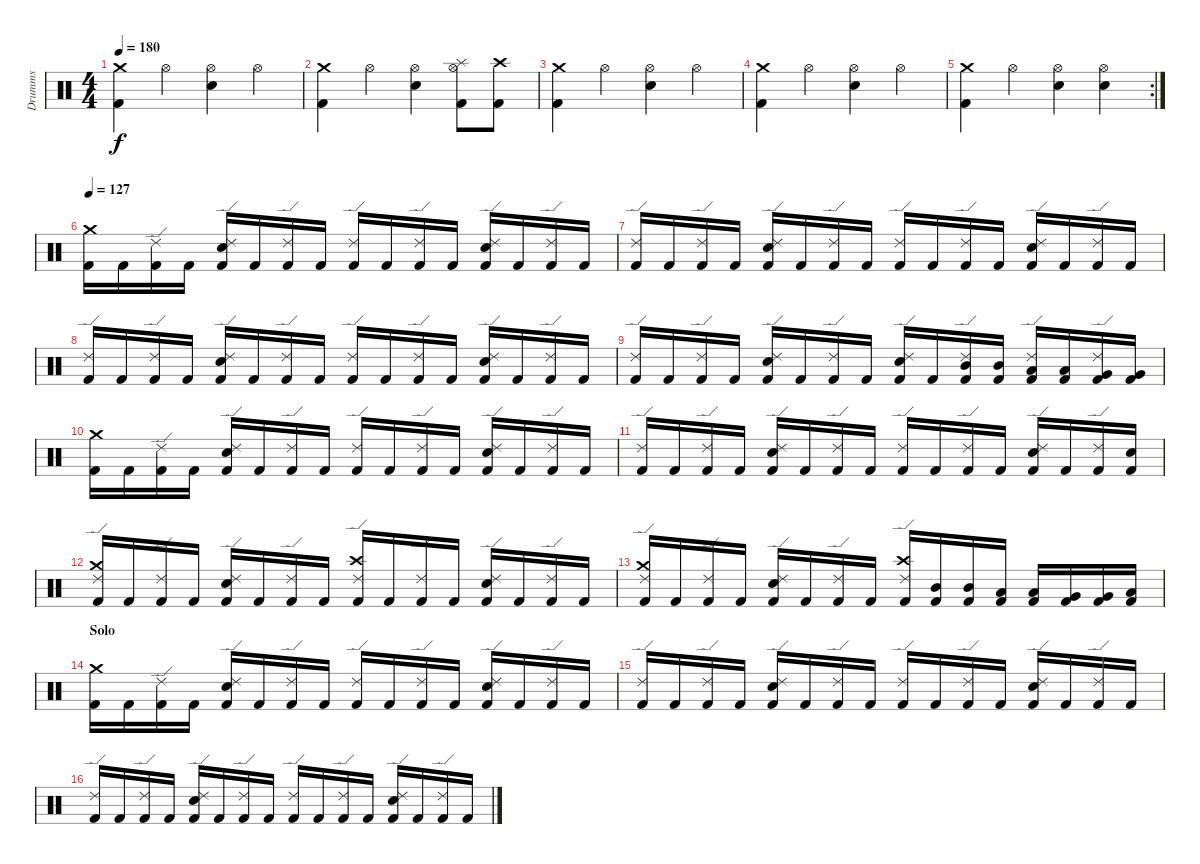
\track ("Drumms" "Drumms") {instrument percussion}
\staff {score}
\articulation defaults
\ts (4 4)
\tempo 180
\clef neutral
\ks c
("Kick (hit) 2" "Crash medium (hit)").4{dy f} "Hi-Hat (open)".4 ("Snare (hit) 2" "Hi-Hat (open)").4 "Hi-Hat (open)".4 |
("Kick (hit) 2" "Crash medium (hit)").4 "Hi-Hat (open)".4 ("Snare (hit) 2" "Hi-Hat (open)").4 ("Kick (hit) 2" "Splash (hit)" "Hi-Hat (open)").8 ("Kick (hit) 2" "Crash high (hit)").8 |
("Kick (hit) 2" "Crash medium (hit)").4 "Hi-Hat (open)".4 ("Snare (hit) 2" "Hi-Hat (open)").4 "Hi-Hat (open)".4 |
("Kick (hit) 2" "Crash medium (hit)").4 "Hi-Hat (open)".4 ("Snare (hit) 2" "Hi-Hat (open)").4 "Hi-Hat (open)".4 |
\rc 2
("Kick (hit) 2" "Crash medium (hit)").4 "Hi-Hat (open)".4 ("Snare (hit) 2" "Hi-Hat (open)").4 ("Snare (hit) 2" "Hi-Hat (open)").4 |
\tempo 127
("Kick (hit) 2" "Crash medium (hit)").16 "Kick (hit) 2".16 ("Kick (hit) 2" "Ride (edge) 2").16 "Kick (hit) 2".16 ("Kick (hit) 2" "Snare (hit) 2" "Ride (edge) 2").16 "Kick (hit) 2".16 ("Kick (hit) 2" "Ride (edge) 2").16 "Kick (hit) 2".16 ("Kick (hit) 2" "Ride (edge) 2").16 "Kick (hit) 2".16 ("Kick (hit) 2" "Ride (edge) 2").16 "Kick (hit) 2".16 ("Kick (hit) 2" "Snare (hit) 2" "Ride (edge) 2").16 "Kick (hit) 2".16 ("Kick (hit) 2" "Ride (edge) 2").16 "Kick (hit) 2".16 |
("Kick (hit) 2" "Ride (edge) 2").16 "Kick (hit) 2".16 ("Kick (hit) 2" "Ride (edge) 2").16 "Kick (hit) 2".16 ("Kick (hit) 2" "Snare (hit) 2" "Ride (edge) 2").16 "Kick (hit) 2".16 ("Kick (hit) 2" "Ride (edge) 2").16 "Kick (hit) 2".16 ("Kick (hit) 2" "Ride (edge) 2").16 "Kick (hit) 2".16 ("Kick (hit) 2" "Ride (edge) 2").16 "Kick (hit) 2".16 ("Kick (hit) 2" "Snare (hit) 2" "Ride (edge) 2").16 "Kick (hit) 2".16 ("Kick (hit) 2" "Ride (edge) 2").16 "Kick (hit) 2".16 |
("Kick (hit) 2" "Ride (edge) 2").16 "Kick (hit) 2".16 ("Kick (hit) 2" "Ride (edge) 2").16 "Kick (hit) 2".16 ("Kick (hit) 2" "Snare (hit) 2" "Ride (edge) 2").16 "Kick (hit) 2".16 ("Kick (hit) 2" "Ride (edge) 2").16 "Kick (hit) 2".16 ("Kick (hit) 2" "Ride (edge) 2").16 "Kick (hit) 2".16 ("Kick (hit) 2" "Ride (edge) 2").16 "Kick (hit) 2".16 ("Kick (hit) 2" "Snare (hit) 2" "Ride (edge) 2").16 "Kick (hit) 2".16 ("Kick (hit) 2" "Ride (edge) 2").16 "Kick (hit) 2".16 |
("Kick (hit) 2" "Ride (edge) 2").16 "Kick (hit) 2".16 ("Kick (hit) 2" "Ride (edge) 2").16 "Kick (hit) 2".16 ("Kick (hit) 2" "Snare (hit) 2" "Ride (edge) 2").16 "Kick (hit) 2".16 ("Kick (hit) 2" "Ride (edge) 2").16 "Kick (hit) 2".16 ("Kick (hit) 2" "Snare (hit) 2" "Ride (edge) 2").16 "Kick (hit) 2".16 ("Kick (hit) 2" "Mid Tom (hit)" "Ride (edge) 2").16 ("Kick (hit) 2" "Mid Tom (hit)").16 ("Kick (hit) 2" "Low Tom (hit)" "Ride (edge) 2").16 ("Kick (hit) 2" "Low Tom (hit)").16 ("Kick (hit) 2" "Very Low Tom (hit)" "Ride (edge) 2").16 ("Kick (hit) 2" "Very Low Tom (hit)").16 |
("Kick (hit) 2" "Crash medium (hit)").16 "Kick (hit) 2".16 ("Kick (hit) 2" "Ride (edge) 2").16 "Kick (hit) 2".16 ("Kick (hit) 2" "Snare (hit) 2" "Ride (edge) 2").16 "Kick (hit) 2".16 ("Kick (hit) 2" "Ride (edge) 2").16 "Kick (hit) 2".16 ("Kick (hit) 2" "Ride (edge) 2").16 "Kick (hit) 2".16 ("Kick (hit) 2" "Ride (edge) 2").16 "Kick (hit) 2".16 ("Kick (hit) 2" "Snare (hit) 2" "Ride (edge) 2").16 "Kick (hit) 2".16 ("Kick (hit) 2" "Ride (edge) 2").16 "Kick (hit) 2".16 |
("Kick (hit) 2" "Ride (edge) 2").16 "Kick (hit) 2".16 ("Kick (hit) 2" "Ride (edge) 2").16 "Kick (hit) 2".16 ("Kick (hit) 2" "Snare (hit) 2" "Ride (edge) 2").16 "Kick (hit) 2".16 ("Kick (hit) 2" "Ride (edge) 2").16 "Kick (hit) 2".16 ("Kick (hit) 2" "Ride (edge) 2").16 "Kick (hit) 2".16 ("Kick (hit) 2" "Ride (edge) 2").16 "Kick (hit) 2".16 ("Kick (hit) 2" "Snare (hit) 2" "Ride (edge) 2").16 "Kick (hit) 2".16 ("Kick (hit) 2" "Ride (edge) 2").16 ("Kick (hit) 2" "Snare (hit) 2").16 |
("Kick (hit) 2" "Crash medium (hit)" "Ride (edge) 2").16 "Kick (hit) 2".16 ("Kick (hit) 2" "Ride (edge) 2").16 "Kick (hit) 2".16 ("Kick (hit) 2" "Snare (hit) 2" "Ride (edge) 2").16 "Kick (hit) 2".16 ("Kick (hit) 2" "Ride (edge) 2").16 "Kick (hit) 2".16 ("Kick (hit) 2" "Crash high (hit)" "Ride (edge) 2").16 "Kick (hit) 2".16 ("Kick (hit) 2" "Ride (edge) 2").16 "Kick (hit) 2".16 ("Kick (hit) 2" "Snare (hit) 2" "Ride (edge) 2").16 "Kick (hit) 2".16 ("Kick (hit) 2" "Ride (edge) 2").16 "Kick (hit) 2".16 |
("Kick (hit) 2" "Crash medium (hit)" "Ride (edge) 2").16 "Kick (hit) 2".16 ("Kick (hit) 2" "Ride (edge) 2").16 "Kick (hit) 2".16 ("Kick (hit) 2" "Snare (hit) 2" "Ride (edge) 2").16 "Kick (hit) 2".16 ("Kick (hit) 2" "Ride (edge) 2").16 "Kick (hit) 2".16 ("Kick (hit) 2" "Crash high (hit)" "Ride (edge) 2").16 ("Kick (hit) 2" "Mid Tom (hit)").16 ("Kick (hit) 2" "Mid Tom (hit)").16 ("Kick (hit) 2" "Low Tom (hit)").16 ("Kick (hit) 2" "Low Tom (hit)").16 ("Kick (hit) 2" "Very Low Tom (hit)").16 ("Kick (hit) 2" "Very Low Tom (hit)").16 ("Kick (hit) 2" "Low Floor Tom (hit)").16 |
\section ("" "Solo")
("Kick (hit) 2" "Crash medium (hit)").16 "Kick (hit) 2".16 ("Kick (hit) 2" "Ride (edge) 2").16 "Kick (hit) 2".16 ("Kick (hit) 2" "Snare (hit) 2" "Ride (edge) 2").16 "Kick (hit) 2".16 ("Kick (hit) 2" "Ride (edge) 2").16 "Kick (hit) 2".16 ("Kick (hit) 2" "Ride (edge) 2").16 "Kick (hit) 2".16 ("Kick (hit) 2" "Ride (edge) 2").16 "Kick (hit) 2".16 ("Kick (hit) 2" "Snare (hit) 2" "Ride (edge) 2").16 "Kick (hit) 2".16 ("Kick (hit) 2" "Ride (edge) 2").16 "Kick (hit) 2".16 |
("Kick (hit) 2" "Ride (edge) 2").16 "Kick (hit) 2".16 ("Kick (hit) 2" "Ride (edge) 2").16 "Kick (hit) 2".16 ("Kick (hit) 2" "Snare (hit) 2" "Ride (edge) 2").16 "Kick (hit) 2".16 ("Kick (hit) 2" "Ride (edge) 2").16 "Kick (hit) 2".16 ("Kick (hit) 2" "Ride (edge) 2").16 "Kick (hit) 2".16 ("Kick (hit) 2" "Ride (edge) 2").16 "Kick (hit) 2".16 ("Kick (hit) 2" "Snare (hit) 2" "Ride (edge) 2").16 "Kick (hit) 2".16 ("Kick (hit) 2" "Ride (edge) 2").16 "Kick (hit) 2".16 |
("Kick (hit) 2" "Ride (edge) 2").16 "Kick (hit) 2".16 ("Kick (hit) 2" "Ride (edge) 2").16 "Kick (hit) 2".16 ("Kick (hit) 2" "Snare (hit) 2" "Ride (edge) 2").16 "Kick (hit) 2".16 ("Kick (hit) 2" "Ride (edge) 2").16 "Kick (hit) 2".16 ("Kick (hit) 2" "Ride (edge) 2").16 "Kick (hit) 2".16 ("Kick (hit) 2" "Ride (edge) 2").16 "Kick (hit) 2".16 ("Kick (hit) 2" "Snare (hit) 2" "Ride (edge) 2").16 "Kick (hit) 2".16 ("Kick (hit) 2" "Ride (edge) 2").16 "Kick (hit) 2".16
